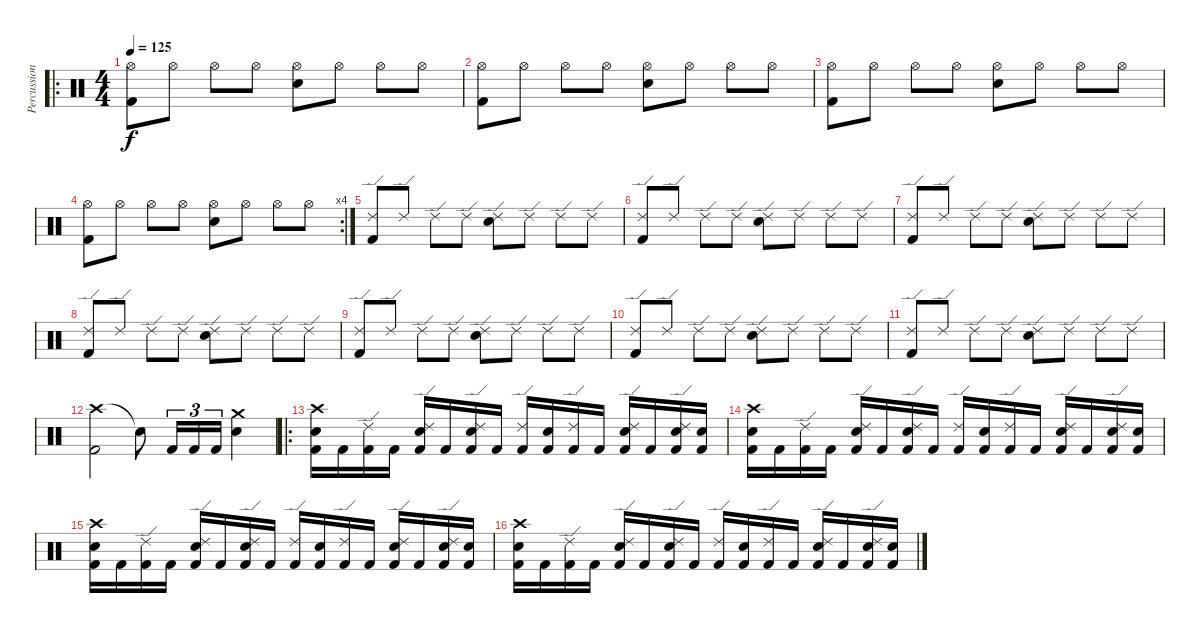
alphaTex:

\track ("Percussion" "Percussion") {instrument percussion}
\staff {score}
\articulation defaults
\ro
\ts (4 4)
\tempo 125
\clef neutral
\ks c
("Hi-Hat (open)" "Kick (hit) 2").8{dy f} "Hi-Hat (open)".8 "Hi-Hat (open)".8 "Hi-Hat (open)".8 ("Hi-Hat (open)" "Electric Snare (hit)").8 "Hi-Hat (open)".8 "Hi-Hat (open)".8 "Hi-Hat (open)".8 |
("Hi-Hat (open)" "Kick (hit) 2").8 "Hi-Hat (open)".8 "Hi-Hat (open)".8 "Hi-Hat (open)".8 ("Hi-Hat (open)" "Electric Snare (hit)").8 "Hi-Hat (open)".8 "Hi-Hat (open)".8 "Hi-Hat (open)".8 |
("Hi-Hat (open)" "Kick (hit) 2").8 "Hi-Hat (open)".8 "Hi-Hat (open)".8 "Hi-Hat (open)".8 ("Hi-Hat (open)" "Electric Snare (hit)").8 "Hi-Hat (open)".8 "Hi-Hat (open)".8 "Hi-Hat (open)".8 |
\rc 4
("Hi-Hat (open)" "Kick (hit) 2").8 "Hi-Hat (open)".8 "Hi-Hat (open)".8 "Hi-Hat (open)".8 ("Hi-Hat (open)" "Electric Snare (hit)").8 "Hi-Hat (open)".8 "Hi-Hat (open)".8 "Hi-Hat (open)".8 |
("Ride (edge) 2" "Kick (hit) 2").8 "Ride (edge) 2".8 "Ride (edge) 2".8 "Ride (edge) 2".8 ("Ride (edge) 2" "Electric Snare (hit)").8 "Ride (edge) 2".8 "Ride (edge) 2".8 "Ride (edge) 2".8 |
("Ride (edge) 2" "Kick (hit) 2").8 "Ride (edge) 2".8 "Ride (edge) 2".8 "Ride (edge) 2".8 ("Ride (edge) 2" "Electric Snare (hit)").8 "Ride (edge) 2".8 "Ride (edge) 2".8 "Ride (edge) 2".8 |
("Ride (edge) 2" "Kick (hit) 2").8 "Ride (edge) 2".8 "Ride (edge) 2".8 "Ride (edge) 2".8 ("Ride (edge) 2" "Electric Snare (hit)").8 "Ride (edge) 2".8 "Ride (edge) 2".8 "Ride (edge) 2".8 |
("Ride (edge) 2" "Kick (hit) 2").8 "Ride (edge) 2".8 "Ride (edge) 2".8 "Ride (edge) 2".8 ("Ride (edge) 2" "Electric Snare (hit)").8 "Ride (edge) 2".8 "Ride (edge) 2".8 "Ride (edge) 2".8 |
("Ride (edge) 2" "Kick (hit) 2").8 "Ride (edge) 2".8 "Ride (edge) 2".8 "Ride (edge) 2".8 ("Ride (edge) 2" "Electric Snare (hit)").8 "Ride (edge) 2".8 "Ride (edge) 2".8 "Ride (edge) 2".8 |
("Ride (edge) 2" "Kick (hit) 2").8 "Ride (edge) 2".8 "Ride (edge) 2".8 "Ride (edge) 2".8 ("Ride (edge) 2" "Electric Snare (hit)").8 "Ride (edge) 2".8 "Ride (edge) 2".8 "Ride (edge) 2".8 |
("Ride (edge) 2" "Kick (hit) 2").8 "Ride (edge) 2".8 "Ride (edge) 2".8 "Ride (edge) 2".8 ("Ride (edge) 2" "Electric Snare (hit)").8 "Ride (edge) 2".8 "Ride (edge) 2".8 "Ride (edge) 2".8 |
("Crash high (hit)" "Kick (hit) 2").2 "Snare (hit)"{t}.8 "Kick (hit) 2".16{tu (3 2)} "Kick (hit) 2".16{tu (3 2)} "Kick (hit) 2".16{tu (3 2)} ("Crash medium (hit)" "Electric Snare (hit)").4 |
\ro
("Crash high (hit)" "Electric Snare (hit)" "Kick (hit) 2").16 "Kick (hit) 2".16 ("Ride (edge) 2" "Kick (hit) 2").16 "Kick (hit) 2".16 ("Ride (edge) 2" "Electric Snare (hit)" "Kick (hit) 2").16 "Kick (hit) 2".16 ("Ride (edge) 2" "Electric Snare (hit)" "Kick (hit) 2").16 "Kick (hit) 2".16 ("Ride (edge) 2" "Kick (hit) 2").16 ("Electric Snare (hit)" "Kick (hit) 2").16 ("Ride (edge) 2" "Kick (hit) 2").16 "Kick (hit) 2".16 ("Ride (edge) 2" "Electric Snare (hit)" "Kick (hit) 2").16 "Kick (hit) 2".16 ("Ride (edge) 2" "Electric Snare (hit)" "Kick (hit) 2").16 ("Electric Snare (hit)" "Kick (hit) 2").16 |
("Crash high (hit)" "Electric Snare (hit)" "Kick (hit) 2").16 "Kick (hit) 2".16 ("Ride (edge) 2" "Kick (hit) 2").16 "Kick (hit) 2".16 ("Ride (edge) 2" "Electric Snare (hit)" "Kick (hit) 2").16 "Kick (hit) 2".16 ("Ride (edge) 2" "Electric Snare (hit)" "Kick (hit) 2").16 "Kick (hit) 2".16 ("Ride (edge) 2" "Kick (hit) 2").16 ("Electric Snare (hit)" "Kick (hit) 2").16 ("Ride (edge) 2" "Kick (hit) 2").16 "Kick (hit) 2".16 ("Ride (edge) 2" "Electric Snare (hit)" "Kick (hit) 2").16 "Kick (hit) 2".16 ("Ride (edge) 2" "Electric Snare (hit)" "Kick (hit) 2").16 ("Electric Snare (hit)" "Kick (hit) 2").16 |
("Crash high (hit)" "Electric Snare (hit)" "Kick (hit) 2").16 "Kick (hit) 2".16 ("Ride (edge) 2" "Kick (hit) 2").16 "Kick (hit) 2".16 ("Ride (edge) 2" "Electric Snare (hit)" "Kick (hit) 2").16 "Kick (hit) 2".16 ("Ride (edge) 2" "Electric Snare (hit)" "Kick (hit) 2").16 "Kick (hit) 2".16 ("Ride (edge) 2" "Kick (hit) 2").16 ("Electric Snare (hit)" "Kick (hit) 2").16 ("Ride (edge) 2" "Kick (hit) 2").16 "Kick (hit) 2".16 ("Ride (edge) 2" "Electric Snare (hit)" "Kick (hit) 2").16 "Kick (hit) 2".16 ("Ride (edge) 2" "Electric Snare (hit)" "Kick (hit) 2").16 ("Electric Snare (hit)" "Kick (hit) 2").16 |
("Crash high (hit)" "Electric Snare (hit)" "Kick (hit) 2").16 "Kick (hit) 2".16 ("Ride (edge) 2" "Kick (hit) 2").16 "Kick (hit) 2".16 ("Ride (edge) 2" "Electric Snare (hit)" "Kick (hit) 2").16 "Kick (hit) 2".16 ("Ride (edge) 2" "Electric Snare (hit)" "Kick (hit) 2").16 "Kick (hit) 2".16 ("Ride (edge) 2" "Kick (hit) 2").16 ("Electric Snare (hit)" "Kick (hit) 2").16 ("Ride (edge) 2" "Kick (hit) 2").16 "Kick (hit) 2".16 ("Ride (edge) 2" "Electric Snare (hit)" "Kick (hit) 2").16 "Kick (hit) 2".16 ("Ride (edge) 2" "Electric Snare (hit)" "Kick (hit) 2").16 ("Electric Snare (hit)" "Kick (hit) 2").16
